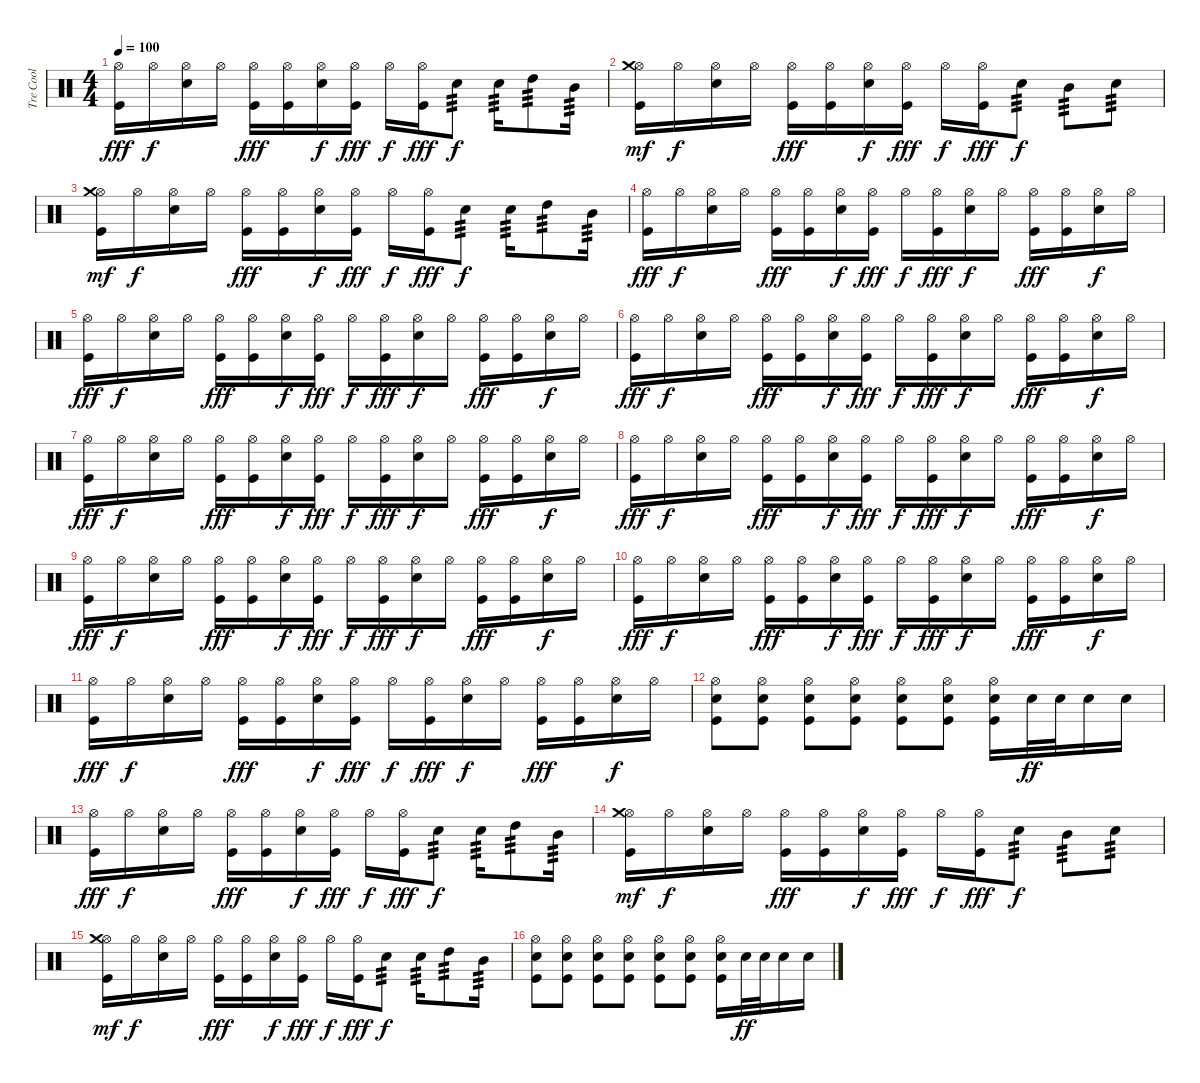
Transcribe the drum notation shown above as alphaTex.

\track ("Tre Cool" "Tre Cool") {instrument percussion}
\staff {score}
\articulation defaults
\ts (4 4)
\tempo 100
\clef neutral
\ks c
("Hi-Hat (open)" "Kick (hit)").16{dy fff} "Hi-Hat (open)".16{dy f} ("Hi-Hat (open)" "Snare (hit) 2").16 "Hi-Hat (open)".16 ("Hi-Hat (open)" "Kick (hit)").16{dy fff} ("Hi-Hat (open)" "Kick (hit)").16 ("Hi-Hat (open)" "Snare (hit) 2").16{dy f} ("Hi-Hat (open)" "Kick (hit)").16{dy fff} "Hi-Hat (open)".16{dy f} ("Hi-Hat (open)" "Kick (hit)").16{dy fff} "Snare (hit) 2".8{tp 3 dy f} "Snare (hit) 2".16{tp 3} "High Tom (hit)".8{tp 3} "Mid Tom (hit)".16{tp 3} |
("Hi-Hat (open)" "Kick (hit)" "Crash medium (hit)").16{dy mf} "Hi-Hat (open)".16{dy f} ("Hi-Hat (open)" "Snare (hit) 2").16 "Hi-Hat (open)".16 ("Hi-Hat (open)" "Kick (hit)").16{dy fff} ("Hi-Hat (open)" "Kick (hit)").16 ("Hi-Hat (open)" "Snare (hit) 2").16{dy f} ("Hi-Hat (open)" "Kick (hit)").16{dy fff} "Hi-Hat (open)".16{dy f} ("Hi-Hat (open)" "Kick (hit)").16{dy fff} "Snare (hit) 2".8{tp 3 dy f} "Mid Tom (hit)".8{tp 3} "Snare (hit) 2".8{tp 3} |
("Hi-Hat (open)" "Kick (hit)" "Crash medium (hit)").16{dy mf} "Hi-Hat (open)".16{dy f} ("Hi-Hat (open)" "Snare (hit) 2").16 "Hi-Hat (open)".16 ("Hi-Hat (open)" "Kick (hit)").16{dy fff} ("Hi-Hat (open)" "Kick (hit)").16 ("Hi-Hat (open)" "Snare (hit) 2").16{dy f} ("Hi-Hat (open)" "Kick (hit)").16{dy fff} "Hi-Hat (open)".16{dy f} ("Hi-Hat (open)" "Kick (hit)").16{dy fff} "Snare (hit) 2".8{tp 3 dy f} "Snare (hit) 2".16{tp 3} "High Tom (hit)".8{tp 3} "Mid Tom (hit)".16{tp 3} |
("Hi-Hat (open)" "Kick (hit)").16{dy fff} "Hi-Hat (open)".16{dy f} ("Hi-Hat (open)" "Snare (hit) 2").16 "Hi-Hat (open)".16 ("Hi-Hat (open)" "Kick (hit)").16{dy fff} ("Hi-Hat (open)" "Kick (hit)").16 ("Hi-Hat (open)" "Snare (hit) 2").16{dy f} ("Hi-Hat (open)" "Kick (hit)").16{dy fff} "Hi-Hat (open)".16{dy f} ("Hi-Hat (open)" "Kick (hit)").16{dy fff} ("Hi-Hat (open)" "Snare (hit) 2").16{dy f} "Hi-Hat (open)".16 ("Hi-Hat (open)" "Kick (hit)").16{dy fff} ("Hi-Hat (open)" "Kick (hit)").16 ("Hi-Hat (open)" "Snare (hit) 2").16{dy f} "Hi-Hat (open)".16 |
("Hi-Hat (open)" "Kick (hit)").16{dy fff} "Hi-Hat (open)".16{dy f} ("Hi-Hat (open)" "Snare (hit) 2").16 "Hi-Hat (open)".16 ("Hi-Hat (open)" "Kick (hit)").16{dy fff} ("Hi-Hat (open)" "Kick (hit)").16 ("Hi-Hat (open)" "Snare (hit) 2").16{dy f} ("Hi-Hat (open)" "Kick (hit)").16{dy fff} "Hi-Hat (open)".16{dy f} ("Hi-Hat (open)" "Kick (hit)").16{dy fff} ("Hi-Hat (open)" "Snare (hit) 2").16{dy f} "Hi-Hat (open)".16 ("Hi-Hat (open)" "Kick (hit)").16{dy fff} ("Hi-Hat (open)" "Kick (hit)").16 ("Hi-Hat (open)" "Snare (hit) 2").16{dy f} "Hi-Hat (open)".16 |
("Hi-Hat (open)" "Kick (hit)").16{dy fff} "Hi-Hat (open)".16{dy f} ("Hi-Hat (open)" "Snare (hit) 2").16 "Hi-Hat (open)".16 ("Hi-Hat (open)" "Kick (hit)").16{dy fff} ("Hi-Hat (open)" "Kick (hit)").16 ("Hi-Hat (open)" "Snare (hit) 2").16{dy f} ("Hi-Hat (open)" "Kick (hit)").16{dy fff} "Hi-Hat (open)".16{dy f} ("Hi-Hat (open)" "Kick (hit)").16{dy fff} ("Hi-Hat (open)" "Snare (hit) 2").16{dy f} "Hi-Hat (open)".16 ("Hi-Hat (open)" "Kick (hit)").16{dy fff} ("Hi-Hat (open)" "Kick (hit)").16 ("Hi-Hat (open)" "Snare (hit) 2").16{dy f} "Hi-Hat (open)".16 |
("Hi-Hat (open)" "Kick (hit)").16{dy fff} "Hi-Hat (open)".16{dy f} ("Hi-Hat (open)" "Snare (hit) 2").16 "Hi-Hat (open)".16 ("Hi-Hat (open)" "Kick (hit)").16{dy fff} ("Hi-Hat (open)" "Kick (hit)").16 ("Hi-Hat (open)" "Snare (hit) 2").16{dy f} ("Hi-Hat (open)" "Kick (hit)").16{dy fff} "Hi-Hat (open)".16{dy f} ("Hi-Hat (open)" "Kick (hit)").16{dy fff} ("Hi-Hat (open)" "Snare (hit) 2").16{dy f} "Hi-Hat (open)".16 ("Hi-Hat (open)" "Kick (hit)").16{dy fff} ("Hi-Hat (open)" "Kick (hit)").16 ("Hi-Hat (open)" "Snare (hit) 2").16{dy f} "Hi-Hat (open)".16 |
("Hi-Hat (open)" "Kick (hit)").16{dy fff} "Hi-Hat (open)".16{dy f} ("Hi-Hat (open)" "Snare (hit) 2").16 "Hi-Hat (open)".16 ("Hi-Hat (open)" "Kick (hit)").16{dy fff} ("Hi-Hat (open)" "Kick (hit)").16 ("Hi-Hat (open)" "Snare (hit) 2").16{dy f} ("Hi-Hat (open)" "Kick (hit)").16{dy fff} "Hi-Hat (open)".16{dy f} ("Hi-Hat (open)" "Kick (hit)").16{dy fff} ("Hi-Hat (open)" "Snare (hit) 2").16{dy f} "Hi-Hat (open)".16 ("Hi-Hat (open)" "Kick (hit)").16{dy fff} ("Hi-Hat (open)" "Kick (hit)").16 ("Hi-Hat (open)" "Snare (hit) 2").16{dy f} "Hi-Hat (open)".16 |
("Hi-Hat (open)" "Kick (hit)").16{dy fff} "Hi-Hat (open)".16{dy f} ("Hi-Hat (open)" "Snare (hit) 2").16 "Hi-Hat (open)".16 ("Hi-Hat (open)" "Kick (hit)").16{dy fff} ("Hi-Hat (open)" "Kick (hit)").16 ("Hi-Hat (open)" "Snare (hit) 2").16{dy f} ("Hi-Hat (open)" "Kick (hit)").16{dy fff} "Hi-Hat (open)".16{dy f} ("Hi-Hat (open)" "Kick (hit)").16{dy fff} ("Hi-Hat (open)" "Snare (hit) 2").16{dy f} "Hi-Hat (open)".16 ("Hi-Hat (open)" "Kick (hit)").16{dy fff} ("Hi-Hat (open)" "Kick (hit)").16 ("Hi-Hat (open)" "Snare (hit) 2").16{dy f} "Hi-Hat (open)".16 |
("Hi-Hat (open)" "Kick (hit)").16{dy fff} "Hi-Hat (open)".16{dy f} ("Hi-Hat (open)" "Snare (hit) 2").16 "Hi-Hat (open)".16 ("Hi-Hat (open)" "Kick (hit)").16{dy fff} ("Hi-Hat (open)" "Kick (hit)").16 ("Hi-Hat (open)" "Snare (hit) 2").16{dy f} ("Hi-Hat (open)" "Kick (hit)").16{dy fff} "Hi-Hat (open)".16{dy f} ("Hi-Hat (open)" "Kick (hit)").16{dy fff} ("Hi-Hat (open)" "Snare (hit) 2").16{dy f} "Hi-Hat (open)".16 ("Hi-Hat (open)" "Kick (hit)").16{dy fff} ("Hi-Hat (open)" "Kick (hit)").16 ("Hi-Hat (open)" "Snare (hit) 2").16{dy f} "Hi-Hat (open)".16 |
("Hi-Hat (open)" "Kick (hit)").16{dy fff} "Hi-Hat (open)".16{dy f} ("Hi-Hat (open)" "Snare (hit) 2").16 "Hi-Hat (open)".16 ("Hi-Hat (open)" "Kick (hit)").16{dy fff} ("Hi-Hat (open)" "Kick (hit)").16 ("Hi-Hat (open)" "Snare (hit) 2").16{dy f} ("Hi-Hat (open)" "Kick (hit)").16{dy fff} "Hi-Hat (open)".16{dy f} ("Hi-Hat (open)" "Kick (hit)").16{dy fff} ("Hi-Hat (open)" "Snare (hit) 2").16{dy f} "Hi-Hat (open)".16 ("Hi-Hat (open)" "Kick (hit)").16{dy fff} ("Hi-Hat (open)" "Kick (hit)").16 ("Hi-Hat (open)" "Snare (hit) 2").16{dy f} "Hi-Hat (open)".16 |
("Hi-Hat (open)" "Snare (hit) 2" "Kick (hit)").8 ("Hi-Hat (open)" "Snare (hit) 2" "Kick (hit)").8 ("Hi-Hat (open)" "Snare (hit) 2" "Kick (hit)").8 ("Hi-Hat (open)" "Snare (hit) 2" "Kick (hit)").8 ("Hi-Hat (open)" "Snare (hit) 2" "Kick (hit)").8 ("Hi-Hat (open)" "Snare (hit) 2" "Kick (hit)").8 ("Hi-Hat (open)" "Snare (hit) 2" "Kick (hit)").16 "Snare (hit) 2".32{dy ff} "Snare (hit) 2".32 "Snare (hit) 2".16 "Snare (hit) 2".16 |
("Hi-Hat (open)" "Kick (hit)").16{dy fff} "Hi-Hat (open)".16{dy f} ("Hi-Hat (open)" "Snare (hit) 2").16 "Hi-Hat (open)".16 ("Hi-Hat (open)" "Kick (hit)").16{dy fff} ("Hi-Hat (open)" "Kick (hit)").16 ("Hi-Hat (open)" "Snare (hit) 2").16{dy f} ("Hi-Hat (open)" "Kick (hit)").16{dy fff} "Hi-Hat (open)".16{dy f} ("Hi-Hat (open)" "Kick (hit)").16{dy fff} "Snare (hit) 2".8{tp 3 dy f} "Snare (hit) 2".16{tp 3} "High Tom (hit)".8{tp 3} "Mid Tom (hit)".16{tp 3} |
("Hi-Hat (open)" "Kick (hit)" "Crash medium (hit)").16{dy mf} "Hi-Hat (open)".16{dy f} ("Hi-Hat (open)" "Snare (hit) 2").16 "Hi-Hat (open)".16 ("Hi-Hat (open)" "Kick (hit)").16{dy fff} ("Hi-Hat (open)" "Kick (hit)").16 ("Hi-Hat (open)" "Snare (hit) 2").16{dy f} ("Hi-Hat (open)" "Kick (hit)").16{dy fff} "Hi-Hat (open)".16{dy f} ("Hi-Hat (open)" "Kick (hit)").16{dy fff} "Snare (hit) 2".8{tp 3 dy f} "Mid Tom (hit)".8{tp 3} "Snare (hit) 2".8{tp 3} |
("Hi-Hat (open)" "Kick (hit)" "Crash medium (hit)").16{dy mf} "Hi-Hat (open)".16{dy f} ("Hi-Hat (open)" "Snare (hit) 2").16 "Hi-Hat (open)".16 ("Hi-Hat (open)" "Kick (hit)").16{dy fff} ("Hi-Hat (open)" "Kick (hit)").16 ("Hi-Hat (open)" "Snare (hit) 2").16{dy f} ("Hi-Hat (open)" "Kick (hit)").16{dy fff} "Hi-Hat (open)".16{dy f} ("Hi-Hat (open)" "Kick (hit)").16{dy fff} "Snare (hit) 2".8{tp 3 dy f} "Snare (hit) 2".16{tp 3} "High Tom (hit)".8{tp 3} "Mid Tom (hit)".16{tp 3} |
("Hi-Hat (open)" "Snare (hit) 2" "Kick (hit)").8 ("Hi-Hat (open)" "Snare (hit) 2" "Kick (hit)").8 ("Hi-Hat (open)" "Snare (hit) 2" "Kick (hit)").8 ("Hi-Hat (open)" "Snare (hit) 2" "Kick (hit)").8 ("Hi-Hat (open)" "Snare (hit) 2" "Kick (hit)").8 ("Hi-Hat (open)" "Snare (hit) 2" "Kick (hit)").8 ("Hi-Hat (open)" "Snare (hit) 2" "Kick (hit)").16 "Snare (hit) 2".32{dy ff} "Snare (hit) 2".32 "Snare (hit) 2".16 "Snare (hit) 2".16
